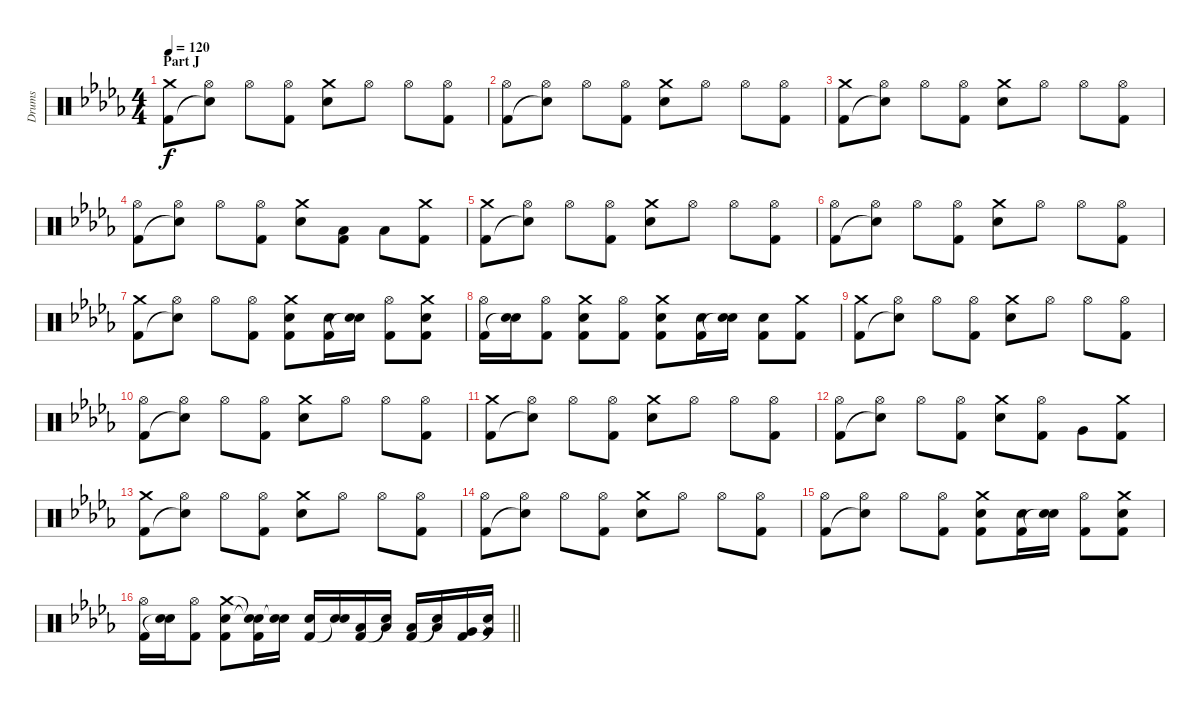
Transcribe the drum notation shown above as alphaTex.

\track ("Drums" "Drums") {instrument percussion}
\staff {score}
\articulation defaults
\ts (4 4)
\section ("" "Part J")
\tempo 120
\clef neutral
\ks db
("Crash medium (hit)" "Kick (hit) 2").8{dy f} ("Hi-Hat (open)" "Snare (hit)"{t}).8 "Hi-Hat (open)".8 ("Hi-Hat (open)" "Kick (hit) 2").8 ("Crash medium (hit)" "Electric Snare (hit)").8 "Hi-Hat (open)".8 "Hi-Hat (open)".8 ("Hi-Hat (open)" "Kick (hit) 2").8 |
("Hi-Hat (open)" "Kick (hit) 2").8 ("Hi-Hat (open)" "Snare (hit)"{t}).8 "Hi-Hat (open)".8 ("Hi-Hat (open)" "Kick (hit) 2").8 ("Crash medium (hit)" "Electric Snare (hit)").8 "Hi-Hat (open)".8 "Hi-Hat (open)".8 ("Hi-Hat (open)" "Kick (hit) 2").8 |
("Crash medium (hit)" "Kick (hit) 2").8 ("Hi-Hat (open)" "Snare (hit)"{t}).8 "Hi-Hat (open)".8 ("Hi-Hat (open)" "Kick (hit) 2").8 ("Crash medium (hit)" "Electric Snare (hit)").8 "Hi-Hat (open)".8 "Hi-Hat (open)".8 ("Hi-Hat (open)" "Kick (hit) 2").8 |
("Hi-Hat (open)" "Kick (hit) 2").8 ("Hi-Hat (open)" "Snare (hit)"{t}).8 "Hi-Hat (open)".8 ("Hi-Hat (open)" "Kick (hit) 2").8 ("Crash medium (hit)" "Electric Snare (hit)").8 ("Low Tom (hit)" "Kick (hit) 2").8 "Low Tom (hit)".8 ("Crash medium (hit)" "Kick (hit) 2").8 |
("Crash medium (hit)" "Kick (hit) 2").8 ("Hi-Hat (open)" "Snare (hit)"{t}).8 "Hi-Hat (open)".8 ("Hi-Hat (open)" "Kick (hit) 2").8 ("Crash medium (hit)" "Electric Snare (hit)").8 "Hi-Hat (open)".8 "Hi-Hat (open)".8 ("Hi-Hat (open)" "Kick (hit) 2").8 |
("Hi-Hat (open)" "Kick (hit) 2").8 ("Hi-Hat (open)" "Snare (hit)"{t}).8 "Hi-Hat (open)".8 ("Hi-Hat (open)" "Kick (hit) 2").8 ("Crash medium (hit)" "Electric Snare (hit)").8 "Hi-Hat (open)".8 "Hi-Hat (open)".8 ("Hi-Hat (open)" "Kick (hit) 2").8 |
("Crash medium (hit)" "Kick (hit) 2").8 ("Hi-Hat (open)" "Snare (hit)"{t}).8 "Hi-Hat (open)".8 ("Hi-Hat (open)" "Kick (hit) 2").8 ("Crash medium (hit)" "Electric Snare (hit)" "Kick (hit) 2").8 ("Electric Snare (hit)" "Kick (hit) 2").16 ("Electric Snare (hit)" "Snare (hit)"{t}).16 ("Hi-Hat (open)" "Kick (hit) 2").8 ("Crash medium (hit)" "Electric Snare (hit)" "Kick (hit) 2").8 |
("Hi-Hat (open)" "Kick (hit) 2").16 ("Electric Snare (hit)" "Snare (hit)"{t}).16 ("Hi-Hat (open)" "Kick (hit) 2").8 ("Crash medium (hit)" "Electric Snare (hit)" "Kick (hit) 2").8 ("Hi-Hat (open)" "Kick (hit) 2").8 ("Crash medium (hit)" "Electric Snare (hit)" "Kick (hit) 2").8 ("Electric Snare (hit)" "Kick (hit) 2").16 ("Electric Snare (hit)" "Snare (hit)"{t}).16 ("Electric Snare (hit)" "Kick (hit) 2").8 ("Crash medium (hit)" "Kick (hit) 2").8 |
("Crash medium (hit)" "Kick (hit) 2").8 ("Hi-Hat (open)" "Snare (hit)"{t}).8 "Hi-Hat (open)".8 ("Hi-Hat (open)" "Kick (hit) 2").8 ("Crash medium (hit)" "Electric Snare (hit)").8 "Hi-Hat (open)".8 "Hi-Hat (open)".8 ("Hi-Hat (open)" "Kick (hit) 2").8 |
("Hi-Hat (open)" "Kick (hit) 2").8 ("Hi-Hat (open)" "Snare (hit)"{t}).8 "Hi-Hat (open)".8 ("Hi-Hat (open)" "Kick (hit) 2").8 ("Crash medium (hit)" "Electric Snare (hit)").8 "Hi-Hat (open)".8 "Hi-Hat (open)".8 ("Hi-Hat (open)" "Kick (hit) 2").8 |
("Crash medium (hit)" "Kick (hit) 2").8 ("Hi-Hat (open)" "Snare (hit)"{t}).8 "Hi-Hat (open)".8 ("Hi-Hat (open)" "Kick (hit) 2").8 ("Crash medium (hit)" "Electric Snare (hit)").8 "Hi-Hat (open)".8 "Hi-Hat (open)".8 ("Hi-Hat (open)" "Kick (hit) 2").8 |
("Hi-Hat (open)" "Kick (hit) 2").8 ("Hi-Hat (open)" "Snare (hit)"{t}).8 "Hi-Hat (open)".8 ("Hi-Hat (open)" "Kick (hit) 2").8 ("Crash medium (hit)" "Electric Snare (hit)").8 ("Hi-Hat (open)" "Kick (hit) 2").8 "Very Low Tom (hit)".8 ("Crash medium (hit)" "Kick (hit) 2").8 |
("Crash medium (hit)" "Kick (hit) 2").8 ("Hi-Hat (open)" "Snare (hit)"{t}).8 "Hi-Hat (open)".8 ("Hi-Hat (open)" "Kick (hit) 2").8 ("Crash medium (hit)" "Electric Snare (hit)").8 "Hi-Hat (open)".8 "Hi-Hat (open)".8 ("Hi-Hat (open)" "Kick (hit) 2").8 |
("Hi-Hat (open)" "Kick (hit) 2").8 ("Hi-Hat (open)" "Snare (hit)"{t}).8 "Hi-Hat (open)".8 ("Hi-Hat (open)" "Kick (hit) 2").8 ("Crash medium (hit)" "Electric Snare (hit)").8 "Hi-Hat (open)".8 "Hi-Hat (open)".8 ("Hi-Hat (open)" "Kick (hit) 2").8 |
("Hi-Hat (open)" "Kick (hit) 2").8 ("Hi-Hat (open)" "Snare (hit)"{t}).8 "Hi-Hat (open)".8 ("Hi-Hat (open)" "Kick (hit) 2").8 ("Crash medium (hit)" "Electric Snare (hit)" "Kick (hit) 2").8 ("Electric Snare (hit)" "Kick (hit) 2").16 ("Electric Snare (hit)" "Snare (hit)"{t}).16 ("Hi-Hat (open)" "Kick (hit) 2").8 ("Crash medium (hit)" "Electric Snare (hit)" "Kick (hit) 2").8 |
\barLineRight lightlight
("Hi-Hat (open)" "Kick (hit) 2").16 ("Electric Snare (hit)" "Snare (hit)"{t}).16 ("Hi-Hat (open)" "Kick (hit) 2").8 ("Crash medium (hit)" "Electric Snare (hit)" "Kick (hit) 2").8 ("Snare (hit)"{t} "Snare (hit)"{t} "Kick (hit) 2").16 ("Electric Snare (hit)" "Snare (hit)"{t}).16 ("Electric Snare (hit)" "Kick (hit) 2").16 ("Electric Snare (hit)" "Snare (hit)"{t}).16 ("Low Tom (hit)" "Kick (hit) 2").16 ("Low Tom (hit)" "Snare (hit)"{t}).16 ("Low Tom (hit)" "Kick (hit) 2").16 ("Low Tom (hit)" "Snare (hit)"{t}).16 ("Very Low Tom (hit)" "Kick (hit) 2").16 ("Very Low Tom (hit)" "Snare (hit)"{t}).16
